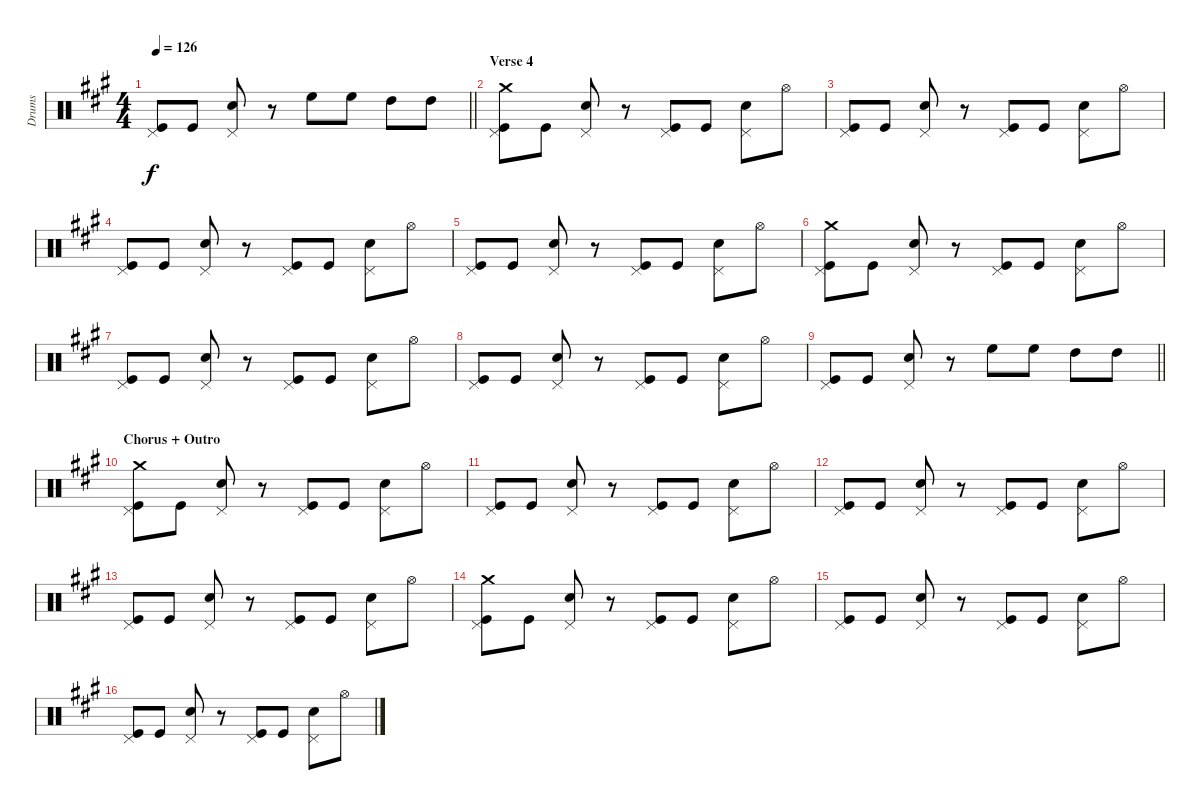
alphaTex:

\track ("Drums" "Drums") {instrument percussion}
\staff {score}
\articulation defaults
\ts (4 4)
\tempo 126
\clef neutral
\barLineRight lightlight
\ks a
("Pedal Hi-Hat (hit)" "Kick (hit)").8{dy f} "Kick (hit)".8 ("Pedal Hi-Hat (hit)" "Snare (hit) 2").8 r.8 "High Floor Tom (hit)".8 "High Floor Tom (hit)".8 "High Tom (hit)".8 "High Tom (hit)".8 |
\section ("" "Verse 4")
("Crash medium (hit)" "Pedal Hi-Hat (hit)" "Kick (hit)").8 "Kick (hit)".8 ("Pedal Hi-Hat (hit)" "Snare (hit) 2").8 r.8 ("Pedal Hi-Hat (hit)" "Kick (hit)").8 "Kick (hit)".8 ("Pedal Hi-Hat (hit)" "Snare (hit) 2").8 "Hi-Hat (open)".8 |
("Pedal Hi-Hat (hit)" "Kick (hit)").8 "Kick (hit)".8 ("Pedal Hi-Hat (hit)" "Snare (hit) 2").8 r.8 ("Pedal Hi-Hat (hit)" "Kick (hit)").8 "Kick (hit)".8 ("Pedal Hi-Hat (hit)" "Snare (hit) 2").8 "Hi-Hat (open)".8 |
("Pedal Hi-Hat (hit)" "Kick (hit)").8 "Kick (hit)".8 ("Pedal Hi-Hat (hit)" "Snare (hit) 2").8 r.8 ("Pedal Hi-Hat (hit)" "Kick (hit)").8 "Kick (hit)".8 ("Pedal Hi-Hat (hit)" "Snare (hit) 2").8 "Hi-Hat (open)".8 |
("Pedal Hi-Hat (hit)" "Kick (hit)").8 "Kick (hit)".8 ("Pedal Hi-Hat (hit)" "Snare (hit) 2").8 r.8 ("Pedal Hi-Hat (hit)" "Kick (hit)").8 "Kick (hit)".8 ("Pedal Hi-Hat (hit)" "Snare (hit) 2").8 "Hi-Hat (open)".8 |
("Crash medium (hit)" "Pedal Hi-Hat (hit)" "Kick (hit)").8 "Kick (hit)".8 ("Pedal Hi-Hat (hit)" "Snare (hit) 2").8 r.8 ("Pedal Hi-Hat (hit)" "Kick (hit)").8 "Kick (hit)".8 ("Pedal Hi-Hat (hit)" "Snare (hit) 2").8 "Hi-Hat (open)".8 |
("Pedal Hi-Hat (hit)" "Kick (hit)").8 "Kick (hit)".8 ("Pedal Hi-Hat (hit)" "Snare (hit) 2").8 r.8 ("Pedal Hi-Hat (hit)" "Kick (hit)").8 "Kick (hit)".8 ("Pedal Hi-Hat (hit)" "Snare (hit) 2").8 "Hi-Hat (open)".8 |
("Pedal Hi-Hat (hit)" "Kick (hit)").8 "Kick (hit)".8 ("Pedal Hi-Hat (hit)" "Snare (hit) 2").8 r.8 ("Pedal Hi-Hat (hit)" "Kick (hit)").8 "Kick (hit)".8 ("Pedal Hi-Hat (hit)" "Snare (hit) 2").8 "Hi-Hat (open)".8 |
\barLineRight lightlight
("Pedal Hi-Hat (hit)" "Kick (hit)").8 "Kick (hit)".8 ("Pedal Hi-Hat (hit)" "Snare (hit) 2").8 r.8 "High Floor Tom (hit)".8 "High Floor Tom (hit)".8 "High Tom (hit)".8 "High Tom (hit)".8 |
\section ("" "Chorus + Outro")
("Crash medium (hit)" "Pedal Hi-Hat (hit)" "Kick (hit)").8 "Kick (hit)".8 ("Pedal Hi-Hat (hit)" "Snare (hit) 2").8 r.8 ("Pedal Hi-Hat (hit)" "Kick (hit)").8 "Kick (hit)".8 ("Pedal Hi-Hat (hit)" "Snare (hit) 2").8 "Hi-Hat (open)".8 |
("Pedal Hi-Hat (hit)" "Kick (hit)").8 "Kick (hit)".8 ("Pedal Hi-Hat (hit)" "Snare (hit) 2").8 r.8 ("Pedal Hi-Hat (hit)" "Kick (hit)").8 "Kick (hit)".8 ("Pedal Hi-Hat (hit)" "Snare (hit) 2").8 "Hi-Hat (open)".8 |
("Pedal Hi-Hat (hit)" "Kick (hit)").8 "Kick (hit)".8 ("Pedal Hi-Hat (hit)" "Snare (hit) 2").8 r.8 ("Pedal Hi-Hat (hit)" "Kick (hit)").8 "Kick (hit)".8 ("Pedal Hi-Hat (hit)" "Snare (hit) 2").8 "Hi-Hat (open)".8 |
("Pedal Hi-Hat (hit)" "Kick (hit)").8 "Kick (hit)".8 ("Pedal Hi-Hat (hit)" "Snare (hit) 2").8 r.8 ("Pedal Hi-Hat (hit)" "Kick (hit)").8 "Kick (hit)".8 ("Pedal Hi-Hat (hit)" "Snare (hit) 2").8 "Hi-Hat (open)".8 |
("Crash medium (hit)" "Pedal Hi-Hat (hit)" "Kick (hit)").8 "Kick (hit)".8 ("Pedal Hi-Hat (hit)" "Snare (hit) 2").8 r.8 ("Pedal Hi-Hat (hit)" "Kick (hit)").8 "Kick (hit)".8 ("Pedal Hi-Hat (hit)" "Snare (hit) 2").8 "Hi-Hat (open)".8 |
("Pedal Hi-Hat (hit)" "Kick (hit)").8 "Kick (hit)".8 ("Pedal Hi-Hat (hit)" "Snare (hit) 2").8 r.8 ("Pedal Hi-Hat (hit)" "Kick (hit)").8 "Kick (hit)".8 ("Pedal Hi-Hat (hit)" "Snare (hit) 2").8 "Hi-Hat (open)".8 |
("Pedal Hi-Hat (hit)" "Kick (hit)").8 "Kick (hit)".8 ("Pedal Hi-Hat (hit)" "Snare (hit) 2").8 r.8 ("Pedal Hi-Hat (hit)" "Kick (hit)").8 "Kick (hit)".8 ("Pedal Hi-Hat (hit)" "Snare (hit) 2").8 "Hi-Hat (open)".8
